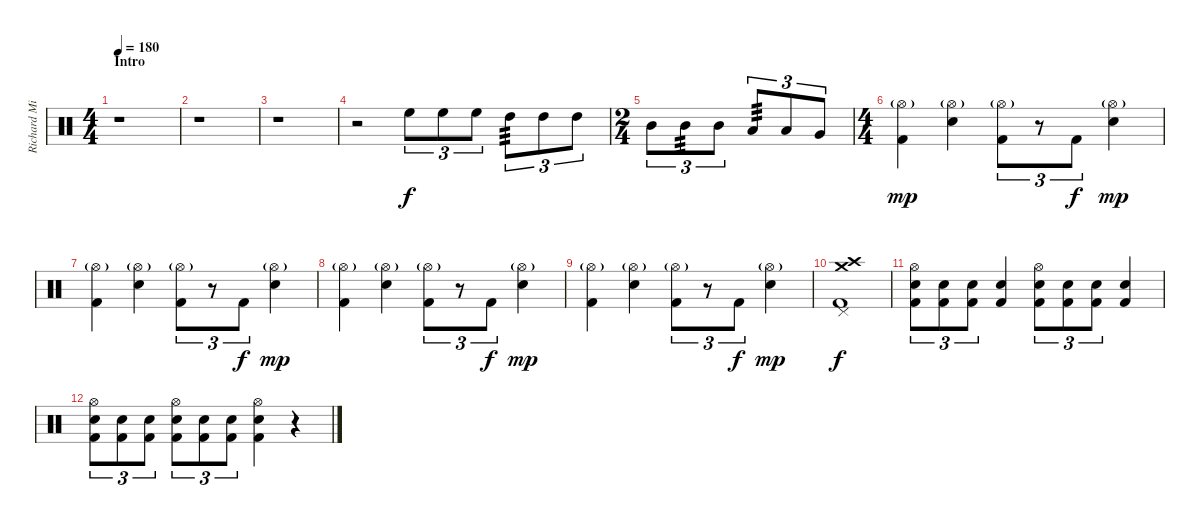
\track ("Richard Michalski" "Richard Mi") {instrument percussion}
\staff {score}
\articulation defaults
\ts (4 4)
\section ("" "Intro")
\tempo 180
\clef neutral
\ks c
r.1{dy f} |
r.1 |
r.1 |
r.2 "High Floor Tom (hit)".8{tu (3 2)} "High Floor Tom (hit)".8{tu (3 2)} "High Floor Tom (hit)".8{tu (3 2)} "High Tom (hit)".8{tu (3 2) tp 3} "High Tom (hit)".8{tu (3 2)} "High Tom (hit)".8{tu (3 2)} |
\ts (2 4)
"Mid Tom (hit)".8{tu (3 2)} "Mid Tom (hit)".8{tu (3 2) tp 3} "Mid Tom (hit)".8{tu (3 2)} "Low Tom (hit)".8{tu (3 2) tp 3} "Low Tom (hit)".8{tu (3 2)} "Very Low Tom (hit)".8{tu (3 2)} |
\ts (4 4)
("Hi-Hat (open)"{g} "Kick (hit) 2").4{dy mp} ("Hi-Hat (open)"{g} "Snare (hit) 2").4 ("Hi-Hat (open)"{g} "Kick (hit) 2").8{tu (3 2)} r.8{tu (3 2)} "Kick (hit) 2".8{tu (3 2) dy f} ("Hi-Hat (open)"{g} "Snare (hit) 2").4{dy mp} |
("Hi-Hat (open)"{g} "Kick (hit) 2").4 ("Hi-Hat (open)"{g} "Snare (hit) 2").4 ("Hi-Hat (open)"{g} "Kick (hit) 2").8{tu (3 2)} r.8{tu (3 2)} "Kick (hit) 2".8{tu (3 2) dy f} ("Hi-Hat (open)"{g} "Snare (hit) 2").4{dy mp} |
("Hi-Hat (open)"{g} "Kick (hit) 2").4 ("Hi-Hat (open)"{g} "Snare (hit) 2").4 ("Hi-Hat (open)"{g} "Kick (hit) 2").8{tu (3 2)} r.8{tu (3 2)} "Kick (hit) 2".8{tu (3 2) dy f} ("Hi-Hat (open)"{g} "Snare (hit) 2").4{dy mp} |
("Hi-Hat (open)"{g} "Kick (hit) 2").4 ("Hi-Hat (open)"{g} "Snare (hit) 2").4 ("Hi-Hat (open)"{g} "Kick (hit) 2").8{tu (3 2)} r.8{tu (3 2)} "Kick (hit) 2".8{tu (3 2) dy f} ("Hi-Hat (open)"{g} "Snare (hit) 2").4{dy mp} |
("Crash medium (hit)" "Crash high (hit)" "Pedal Hi-Hat (hit)" "Kick (hit) 2").1{dy f} |
("Hi-Hat (open)" "Kick (hit) 2" "Snare (hit) 2").8{tu (3 2)} ("Kick (hit) 2" "Snare (hit) 2").8{tu (3 2)} ("Kick (hit) 2" "Snare (hit) 2").8{tu (3 2)} ("Kick (hit) 2" "Snare (hit) 2").4 ("Hi-Hat (open)" "Kick (hit) 2" "Snare (hit) 2").8{tu (3 2)} ("Kick (hit) 2" "Snare (hit) 2").8{tu (3 2)} ("Kick (hit) 2" "Snare (hit) 2").8{tu (3 2)} ("Kick (hit) 2" "Snare (hit) 2").4 |
("Hi-Hat (open)" "Kick (hit) 2" "Snare (hit) 2").8{tu (3 2)} ("Kick (hit) 2" "Snare (hit) 2").8{tu (3 2)} ("Kick (hit) 2" "Snare (hit) 2").8{tu (3 2)} ("Hi-Hat (open)" "Kick (hit) 2" "Snare (hit) 2").8{tu (3 2)} ("Kick (hit) 2" "Snare (hit) 2").8{tu (3 2)} ("Kick (hit) 2" "Snare (hit) 2").8{tu (3 2)} ("Hi-Hat (open)" "Kick (hit) 2" "Snare (hit) 2").4 r.4
